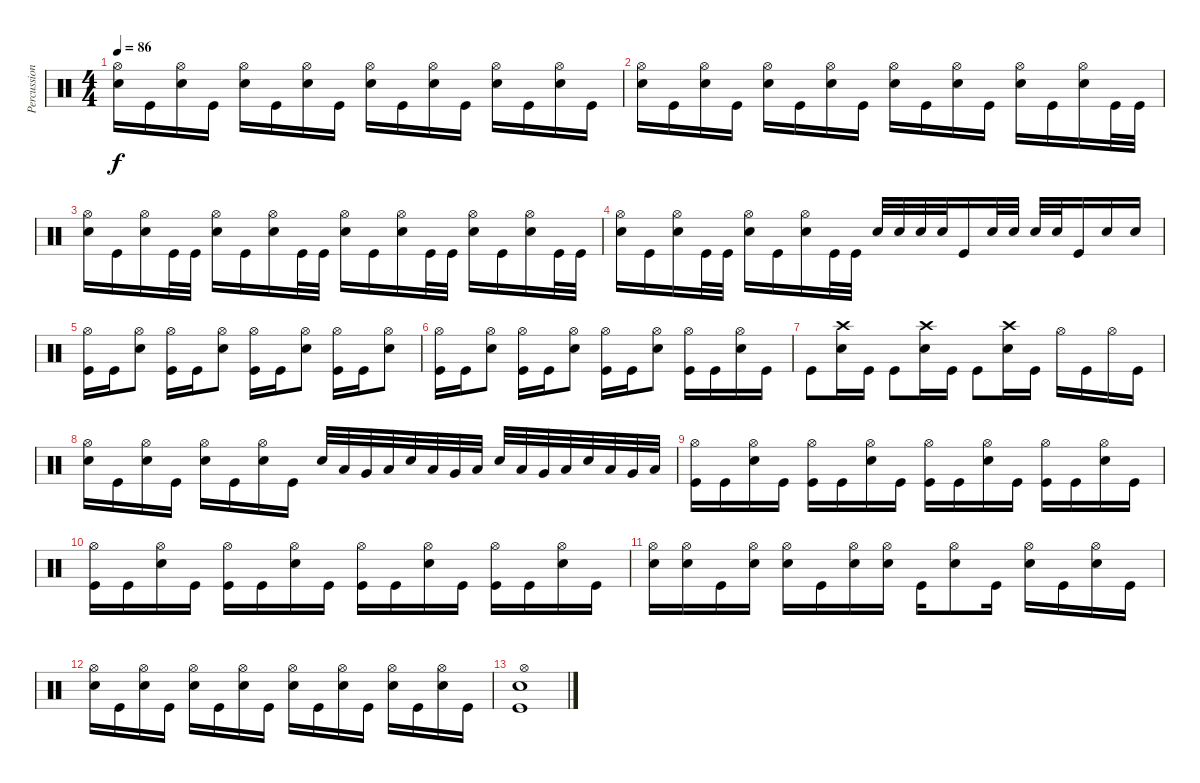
\track ("Percussions" "Percussion") {instrument percussion}
\staff {score}
\articulation defaults
\ts (4 4)
\tempo 86
\clef neutral
\ks c
("Snare (hit) 2" "Hi-Hat (open)").16{dy f} "Kick (hit)".16 ("Snare (hit) 2" "Hi-Hat (open)").16 "Kick (hit)".16 ("Snare (hit) 2" "Hi-Hat (open)").16 "Kick (hit)".16 ("Snare (hit) 2" "Hi-Hat (open)").16 "Kick (hit)".16 ("Snare (hit) 2" "Hi-Hat (open)").16 "Kick (hit)".16 ("Snare (hit) 2" "Hi-Hat (open)").16 "Kick (hit)".16 ("Snare (hit) 2" "Hi-Hat (open)").16 "Kick (hit)".16 ("Snare (hit) 2" "Hi-Hat (open)").16 "Kick (hit)".16 |
("Snare (hit) 2" "Hi-Hat (open)").16 "Kick (hit)".16 ("Snare (hit) 2" "Hi-Hat (open)").16 "Kick (hit)".16 ("Snare (hit) 2" "Hi-Hat (open)").16 "Kick (hit)".16 ("Snare (hit) 2" "Hi-Hat (open)").16 "Kick (hit)".16 ("Snare (hit) 2" "Hi-Hat (open)").16 "Kick (hit)".16 ("Snare (hit) 2" "Hi-Hat (open)").16 "Kick (hit)".16 ("Snare (hit) 2" "Hi-Hat (open)").16 "Kick (hit)".16 ("Snare (hit) 2" "Hi-Hat (open)").16 "Kick (hit)".32 "Kick (hit)".32 |
("Snare (hit) 2" "Hi-Hat (open)").16 "Kick (hit)".16 ("Snare (hit) 2" "Hi-Hat (open)").16 "Kick (hit)".32 "Kick (hit)".32 ("Snare (hit) 2" "Hi-Hat (open)").16 "Kick (hit)".16 ("Snare (hit) 2" "Hi-Hat (open)").16 "Kick (hit)".32 "Kick (hit)".32 ("Snare (hit) 2" "Hi-Hat (open)").16 "Kick (hit)".16 ("Snare (hit) 2" "Hi-Hat (open)").16 "Kick (hit)".32 "Kick (hit)".32 ("Snare (hit) 2" "Hi-Hat (open)").16 "Kick (hit)".16 ("Snare (hit) 2" "Hi-Hat (open)").16 "Kick (hit)".32 "Kick (hit)".32 |
("Snare (hit) 2" "Hi-Hat (open)").16 "Kick (hit)".16 ("Snare (hit) 2" "Hi-Hat (open)").16 "Kick (hit)".32 "Kick (hit)".32 ("Snare (hit) 2" "Hi-Hat (open)").16 "Kick (hit)".16 ("Snare (hit) 2" "Hi-Hat (open)").16 "Kick (hit)".32 "Kick (hit)".32 "Snare (hit) 2".32 "Snare (hit) 2".32 "Snare (hit) 2".32 "Snare (hit) 2".32 "Kick (hit)".16 "Snare (hit) 2".32 "Snare (hit) 2".32 "Snare (hit) 2".32 "Snare (hit) 2".32 "Kick (hit)".16 "Snare (hit) 2".16 "Snare (hit) 2".16 |
("Hi-Hat (open)" "Kick (hit)").16 "Kick (hit)".16 ("Hi-Hat (open)" "Snare (hit) 2").8 ("Hi-Hat (open)" "Kick (hit)").16 "Kick (hit)".16 ("Hi-Hat (open)" "Snare (hit) 2").8 ("Hi-Hat (open)" "Kick (hit)").16 "Kick (hit)".16 ("Hi-Hat (open)" "Snare (hit) 2").8 ("Hi-Hat (open)" "Kick (hit)").16 "Kick (hit)".16 ("Hi-Hat (open)" "Snare (hit) 2").8 |
("Hi-Hat (open)" "Kick (hit)").16 "Kick (hit)".16 ("Hi-Hat (open)" "Snare (hit) 2").8 ("Hi-Hat (open)" "Kick (hit)").16 "Kick (hit)".16 ("Hi-Hat (open)" "Snare (hit) 2").8 ("Hi-Hat (open)" "Kick (hit)").16 "Kick (hit)".16 ("Hi-Hat (open)" "Snare (hit) 2").8 ("Hi-Hat (open)" "Kick (hit)").16 "Kick (hit)".16 ("Hi-Hat (open)" "Snare (hit) 2").16 "Kick (hit)".16 |
"Kick (hit)".8 ("Crash high (hit)" "Snare (hit) 2").16 "Kick (hit)".16 "Kick (hit)".8 ("Crash high (hit)" "Snare (hit) 2").16 "Kick (hit)".16 "Kick (hit)".8 ("Crash high (hit)" "Snare (hit) 2").16 "Kick (hit)".16 "Hi-Hat (open)".16 "Kick (hit)".16 "Hi-Hat (open)".16 "Kick (hit)".16 |
("Hi-Hat (open)" "Snare (hit) 2").16 "Kick (hit)".16 ("Hi-Hat (open)" "Snare (hit) 2").16 "Kick (hit)".16 ("Hi-Hat (open)" "Snare (hit) 2").16 "Kick (hit)".16 ("Hi-Hat (open)" "Snare (hit) 2").16 "Kick (hit)".16 "Snare (hit) 2".32 "Low Tom (hit)".32 "Very Low Tom (hit)".32 "Low Floor Tom (hit)".32 "Snare (hit) 2".32 "Low Tom (hit)".32 "Very Low Tom (hit)".32 "Low Floor Tom (hit)".32 "Snare (hit) 2".32 "Low Tom (hit)".32 "Very Low Tom (hit)".32 "Low Floor Tom (hit)".32 "Snare (hit) 2".32 "Low Tom (hit)".32 "Very Low Tom (hit)".32 "Low Floor Tom (hit)".32 |
("Hi-Hat (open)" "Kick (hit)").16 "Kick (hit)".16 ("Hi-Hat (open)" "Snare (hit) 2").16 "Kick (hit)".16 ("Hi-Hat (open)" "Kick (hit)").16 "Kick (hit)".16 ("Hi-Hat (open)" "Snare (hit) 2").16 "Kick (hit)".16 ("Hi-Hat (open)" "Kick (hit)").16 "Kick (hit)".16 ("Hi-Hat (open)" "Snare (hit) 2").16 "Kick (hit)".16 ("Hi-Hat (open)" "Kick (hit)").16 "Kick (hit)".16 ("Hi-Hat (open)" "Snare (hit) 2").16 "Kick (hit)".16 |
("Hi-Hat (open)" "Kick (hit)").16 "Kick (hit)".16 ("Hi-Hat (open)" "Snare (hit) 2").16 "Kick (hit)".16 ("Hi-Hat (open)" "Kick (hit)").16 "Kick (hit)".16 ("Hi-Hat (open)" "Snare (hit) 2").16 "Kick (hit)".16 ("Hi-Hat (open)" "Kick (hit)").16 "Kick (hit)".16 ("Hi-Hat (open)" "Snare (hit) 2").16 "Kick (hit)".16 ("Hi-Hat (open)" "Kick (hit)").16 "Kick (hit)".16 ("Hi-Hat (open)" "Snare (hit) 2").16 "Kick (hit)".16 |
("Hi-Hat (open)" "Snare (hit) 2").16 ("Hi-Hat (open)" "Snare (hit) 2").16 "Kick (hit)".16 ("Hi-Hat (open)" "Snare (hit) 2").16 ("Hi-Hat (open)" "Snare (hit) 2").16 "Kick (hit)".16 ("Hi-Hat (open)" "Snare (hit) 2").16 ("Hi-Hat (open)" "Snare (hit) 2").16 "Kick (hit)".16 ("Hi-Hat (open)" "Snare (hit) 2").8 "Kick (hit)".16 ("Snare (hit) 2" "Hi-Hat (open)").16 "Kick (hit)".16 ("Hi-Hat (open)" "Snare (hit) 2").16 "Kick (hit)".16 |
("Snare (hit) 2" "Hi-Hat (open)").16 "Kick (hit)".16 ("Snare (hit) 2" "Hi-Hat (open)").16 "Kick (hit)".16 ("Snare (hit) 2" "Hi-Hat (open)").16 "Kick (hit)".16 ("Snare (hit) 2" "Hi-Hat (open)").16 "Kick (hit)".16 ("Snare (hit) 2" "Hi-Hat (open)").16 "Kick (hit)".16 ("Snare (hit) 2" "Hi-Hat (open)").16 "Kick (hit)".16 ("Snare (hit) 2" "Hi-Hat (open)").16 "Kick (hit)".16 ("Snare (hit) 2" "Hi-Hat (open)").16 "Kick (hit)".16 |
("Hi-Hat (open)" "Snare (hit) 2" "Kick (hit)").1
